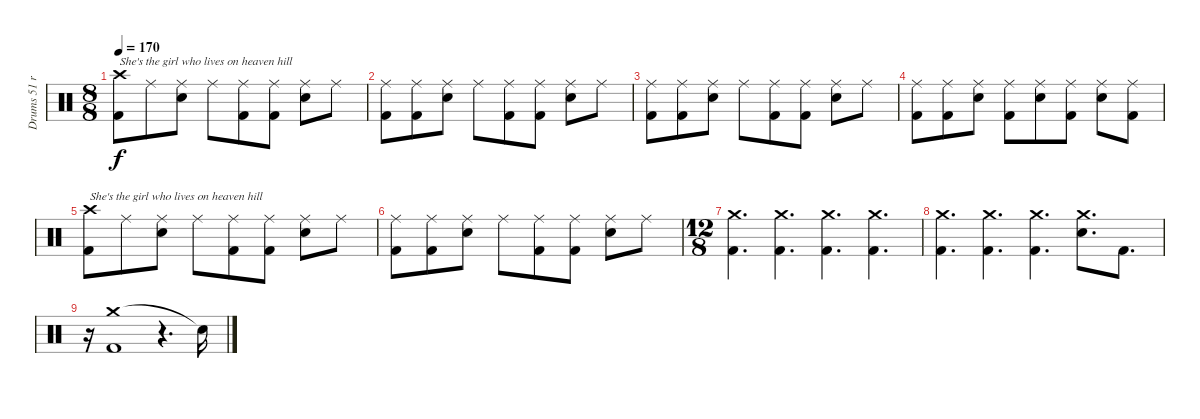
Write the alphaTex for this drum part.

\track ("Drums 51 ride ALBUM" "Drums 51 r") {mute instrument percussion}
\staff {score}
\articulation defaults
\ts (8 8)
\tempo 170
\clef neutral
\ks c
("Crash high (hit)" "Kick (hit) 2").8{txt "She's the girl who lives on heaven hill" dy f} "Ride (middle)".8 ("Ride (middle)" "Snare (hit) 2").8 "Ride (middle)".8 ("Ride (middle)" "Kick (hit) 2").8 ("Ride (middle)" "Kick (hit) 2").8 ("Ride (middle)" "Snare (hit) 2").8 "Ride (middle)".8 |
("Ride (middle)" "Kick (hit) 2").8 ("Ride (middle)" "Kick (hit) 2").8 ("Ride (middle)" "Snare (hit) 2").8 "Ride (middle)".8 ("Ride (middle)" "Kick (hit) 2").8 ("Ride (middle)" "Kick (hit) 2").8 ("Ride (middle)" "Snare (hit) 2").8 "Ride (middle)".8 |
("Ride (middle)" "Kick (hit) 2").8 ("Ride (middle)" "Kick (hit) 2").8 ("Ride (middle)" "Snare (hit) 2").8 "Ride (middle)".8 ("Ride (middle)" "Kick (hit) 2").8 ("Ride (middle)" "Kick (hit) 2").8 ("Ride (middle)" "Snare (hit) 2").8 "Ride (middle)".8 |
("Ride (middle)" "Kick (hit) 2").8 ("Ride (middle)" "Kick (hit) 2").8 ("Ride (middle)" "Snare (hit) 2").8 ("Ride (middle)" "Kick (hit) 2").8 ("Ride (middle)" "Snare (hit) 2").8 ("Ride (middle)" "Kick (hit) 2").8 ("Ride (middle)" "Snare (hit) 2").8 ("Ride (middle)" "Kick (hit) 2").8 |
("Crash high (hit)" "Kick (hit) 2").8{txt "She's the girl who lives on heaven hill"} "Ride (middle)".8 ("Ride (middle)" "Snare (hit) 2").8 "Ride (middle)".8 ("Ride (middle)" "Kick (hit) 2").8 ("Ride (middle)" "Kick (hit) 2").8 ("Ride (middle)" "Snare (hit) 2").8 "Ride (middle)".8 |
("Ride (middle)" "Kick (hit) 2").8 ("Ride (middle)" "Kick (hit) 2").8 ("Ride (middle)" "Snare (hit) 2").8 "Ride (middle)".8 ("Ride (middle)" "Kick (hit) 2").8 ("Ride (middle)" "Kick (hit) 2").8 ("Ride (middle)" "Snare (hit) 2").8 "Ride (middle)".8 |
\ts (12 8)
("Crash medium (hit)" "Kick (hit) 2").4{d} ("Crash medium (hit)" "Kick (hit) 2").4{d} ("Crash medium (hit)" "Kick (hit) 2").4{d} ("Crash medium (hit)" "Kick (hit) 2").4{d} |
("Crash medium (hit)" "Kick (hit) 2").4{d} ("Crash medium (hit)" "Kick (hit) 2").4{d} ("Crash medium (hit)" "Kick (hit) 2").4{d} ("Crash medium (hit)" "Snare (hit) 2").8{d} "Kick (hit) 2".8{d} |
r.16 ("Crash medium (hit)" "Kick (hit) 2").1 r.4{d} "Snare (hit)"{t}.16
